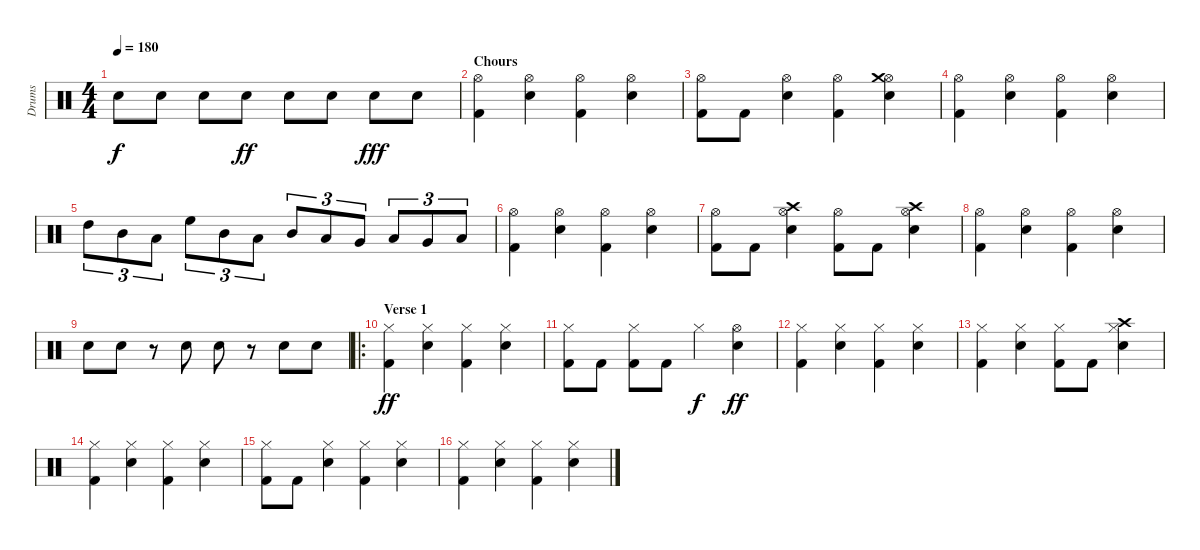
\track ("Drums" "Drums") {instrument percussion}
\staff {score}
\articulation defaults
\ts (4 4)
\tempo 180
\clef neutral
\ks c "Snare (hit) 2".8{dy f} "Snare (hit) 2".8 "Snare (hit) 2".8 "Snare (hit) 2".8{dy ff} "Snare (hit) 2".8 "Snare (hit) 2".8 "Snare (hit) 2".8{dy fff} "Snare (hit) 2".8
|
\section ("" "Chours")
("Hi-Hat (open)" "Kick (hit) 2").4 ("Hi-Hat (open)" "Snare (hit) 2").4 ("Hi-Hat (open)" "Kick (hit) 2").4 ("Hi-Hat (open)" "Snare (hit) 2").4 |
("Hi-Hat (open)" "Kick (hit) 2").8 "Kick (hit) 2".8 ("Hi-Hat (open)" "Snare (hit) 2").4 ("Hi-Hat (open)" "Kick (hit) 2").4 ("Hi-Hat (open)" "Crash medium (hit)" "Snare (hit) 2").4 |
("Hi-Hat (open)" "Kick (hit) 2").4 ("Hi-Hat (open)" "Snare (hit) 2").4 ("Hi-Hat (open)" "Kick (hit) 2").4 ("Hi-Hat (open)" "Snare (hit) 2").4 |
"High Tom (hit)".8{tu (3 2)} "Mid Tom (hit)".8{tu (3 2)} "Low Tom (hit)".8{tu (3 2)} "High Floor Tom (hit)".8{tu (3 2)} "Mid Tom (hit)".8{tu (3 2)} "Low Tom (hit)".8{tu (3 2)} "Mid Tom (hit)".8{tu (3 2)} "Low Tom (hit)".8{tu (3 2)} "Very Low Tom (hit)".8{tu (3 2)} "Low Tom (hit)".8{tu (3 2)} "Very Low Tom (hit)".8{tu (3 2)} "Low Floor Tom (hit)".8{tu (3 2)} |
("Hi-Hat (open)" "Kick (hit) 2").4 ("Hi-Hat (open)" "Snare (hit) 2").4 ("Hi-Hat (open)" "Kick (hit) 2").4 ("Hi-Hat (open)" "Snare (hit) 2").4 |
("Hi-Hat (open)" "Kick (hit) 2").8 "Kick (hit) 2".8 ("Hi-Hat (open)" "Crash high (hit)" "Snare (hit) 2").4 ("Hi-Hat (open)" "Kick (hit) 2").8 "Kick (hit) 2".8 ("Hi-Hat (open)" "Crash high (hit)" "Snare (hit) 2").4 |
("Hi-Hat (open)" "Kick (hit) 2").4 ("Hi-Hat (open)" "Snare (hit) 2").4 ("Hi-Hat (open)" "Kick (hit) 2").4 ("Hi-Hat (open)" "Snare (hit) 2").4 |
"Snare (hit) 2".8 "Snare (hit) 2".8 r.8 "Snare (hit) 2".8 "Snare (hit) 2".8 r.8 "Snare (hit) 2".8 "Snare (hit) 2".8 |
\ro
\section ("" "Verse 1")
("Hi-Hat (closed)" "Kick (hit) 2").4{dy ff} ("Hi-Hat (closed)" "Snare (hit) 2").4 ("Hi-Hat (closed)" "Kick (hit) 2").4 ("Hi-Hat (closed)" "Snare (hit) 2").4 |
("Hi-Hat (closed)" "Kick (hit) 2").8 "Kick (hit) 2".8 ("Hi-Hat (closed)" "Kick (hit) 2").8 "Kick (hit) 2".8 "Hi-Hat (closed)".4{dy f} ("Hi-Hat (open)" "Snare (hit) 2").4{dy ff} |
("Hi-Hat (closed)" "Kick (hit) 2").4 ("Hi-Hat (closed)" "Snare (hit) 2").4 ("Hi-Hat (closed)" "Kick (hit) 2").4 ("Hi-Hat (closed)" "Snare (hit) 2").4 |
("Hi-Hat (closed)" "Kick (hit) 2").4 ("Hi-Hat (closed)" "Snare (hit) 2").4 ("Hi-Hat (closed)" "Kick (hit) 2").8 "Kick (hit) 2".8 ("Hi-Hat (closed)" "Crash high (hit)" "Snare (hit) 2").4 |
("Hi-Hat (closed)" "Kick (hit) 2").4 ("Hi-Hat (closed)" "Snare (hit) 2").4 ("Hi-Hat (closed)" "Kick (hit) 2").4 ("Hi-Hat (closed)" "Snare (hit) 2").4 |
("Hi-Hat (closed)" "Kick (hit) 2").8 "Kick (hit) 2".8 ("Hi-Hat (closed)" "Snare (hit) 2").4 ("Hi-Hat (closed)" "Kick (hit) 2").4 ("Hi-Hat (closed)" "Snare (hit) 2").4 |
("Hi-Hat (closed)" "Kick (hit) 2").4 ("Hi-Hat (closed)" "Snare (hit) 2").4 ("Hi-Hat (closed)" "Kick (hit) 2").4 ("Hi-Hat (closed)" "Snare (hit) 2").4
